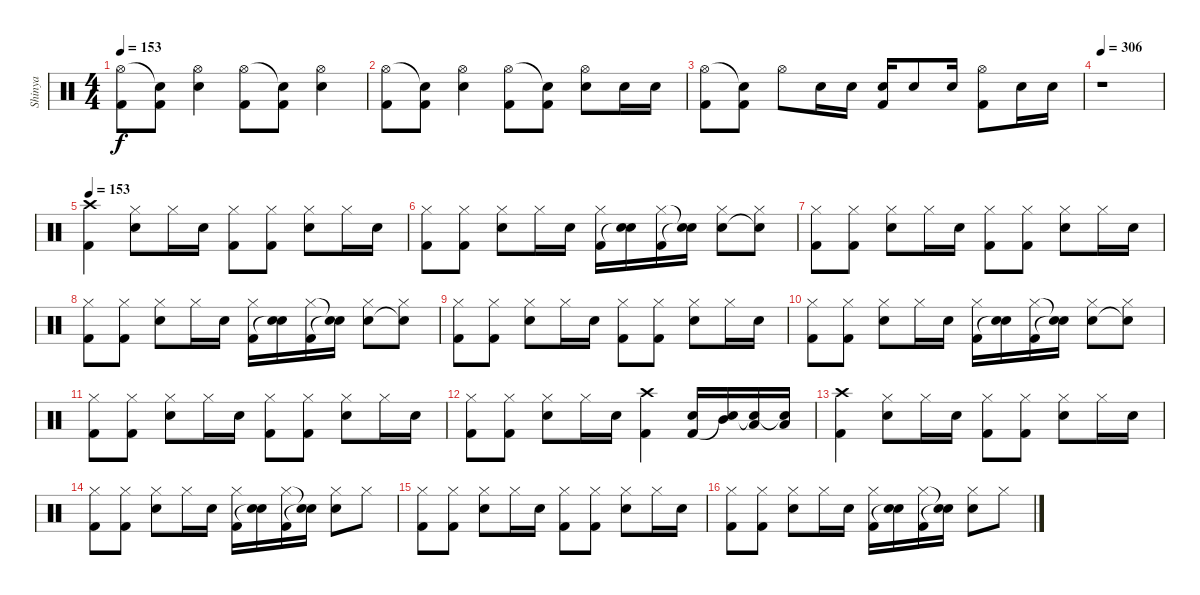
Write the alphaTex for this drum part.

\track ("Shinya" "Shinya") {instrument percussion}
\staff {score}
\articulation defaults
\ts (4 4)
\tempo 153
\clef neutral
\ks c
("Hi-Hat (open)" "Kick (hit) 2").8{dy f} ("Snare (hit)"{t} "Kick (hit) 2").8 ("Hi-Hat (open)" "Electric Snare (hit)").4 ("Hi-Hat (open)" "Kick (hit) 2").8 ("Snare (hit)"{t} "Kick (hit) 2").8 ("Hi-Hat (open)" "Electric Snare (hit)").4 |
("Hi-Hat (open)" "Kick (hit) 2").8 ("Snare (hit)"{t} "Kick (hit) 2").8 ("Hi-Hat (open)" "Electric Snare (hit)").4 ("Hi-Hat (open)" "Kick (hit) 2").8 ("Snare (hit)"{t} "Kick (hit) 2").8 ("Hi-Hat (open)" "Electric Snare (hit)").8 "Electric Snare (hit)".16 "Electric Snare (hit)".16 |
("Hi-Hat (open)" "Kick (hit) 2").8 ("Snare (hit)"{t} "Kick (hit) 2").8 "Hi-Hat (open)".8 "Electric Snare (hit)".16 "Electric Snare (hit)".16 ("Electric Snare (hit)" "Kick (hit) 2").16 "Electric Snare (hit)".8 "Electric Snare (hit)".16 ("Hi-Hat (open)" "Kick (hit) 2").8 "Electric Snare (hit)".16 "Electric Snare (hit)".16 |
\tempo 306
r.1 |
\tempo 153
("Crash high (hit)" "Kick (hit) 2").4 ("Hi-Hat (closed)" "Electric Snare (hit)").8 "Hi-Hat (closed)".16 "Electric Snare (hit)".16 ("Hi-Hat (closed)" "Kick (hit) 2").8 ("Hi-Hat (closed)" "Kick (hit) 2").8 ("Hi-Hat (closed)" "Electric Snare (hit)").8 "Hi-Hat (closed)".16 "Electric Snare (hit)".16 |
("Hi-Hat (closed)" "Kick (hit) 2").8 ("Hi-Hat (closed)" "Kick (hit) 2").8 ("Hi-Hat (closed)" "Electric Snare (hit)").8 "Hi-Hat (closed)".16 "Electric Snare (hit)".16 ("Hi-Hat (closed)" "Kick (hit) 2").16 ("Electric Snare (hit)" "Snare (hit)"{t}).16 ("Hi-Hat (closed)" "Kick (hit) 2").16 ("Snare (hit)"{t} "Snare (hit)"{t}).16 ("Hi-Hat (closed)" "Electric Snare (hit)").8 ("Hi-Hat (closed)" "Snare (hit)"{t}).8 |
("Hi-Hat (closed)" "Kick (hit) 2").8 ("Hi-Hat (closed)" "Kick (hit) 2").8 ("Hi-Hat (closed)" "Electric Snare (hit)").8 "Hi-Hat (closed)".16 "Electric Snare (hit)".16 ("Hi-Hat (closed)" "Kick (hit) 2").8 ("Hi-Hat (closed)" "Kick (hit) 2").8 ("Hi-Hat (closed)" "Electric Snare (hit)").8 "Hi-Hat (closed)".16 "Electric Snare (hit)".16 |
("Hi-Hat (closed)" "Kick (hit) 2").8 ("Hi-Hat (closed)" "Kick (hit) 2").8 ("Hi-Hat (closed)" "Electric Snare (hit)").8 "Hi-Hat (closed)".16 "Electric Snare (hit)".16 ("Hi-Hat (closed)" "Kick (hit) 2").16 ("Electric Snare (hit)" "Snare (hit)"{t}).16 ("Hi-Hat (closed)" "Kick (hit) 2").16 ("Snare (hit)"{t} "Snare (hit)"{t}).16 ("Hi-Hat (closed)" "Electric Snare (hit)").8 ("Hi-Hat (closed)" "Snare (hit)"{t}).8 |
("Hi-Hat (closed)" "Kick (hit) 2").8 ("Hi-Hat (closed)" "Kick (hit) 2").8 ("Hi-Hat (closed)" "Electric Snare (hit)").8 "Hi-Hat (closed)".16 "Electric Snare (hit)".16 ("Hi-Hat (closed)" "Kick (hit) 2").8 ("Hi-Hat (closed)" "Kick (hit) 2").8 ("Hi-Hat (closed)" "Electric Snare (hit)").8 "Hi-Hat (closed)".16 "Electric Snare (hit)".16 |
("Hi-Hat (closed)" "Kick (hit) 2").8 ("Hi-Hat (closed)" "Kick (hit) 2").8 ("Hi-Hat (closed)" "Electric Snare (hit)").8 "Hi-Hat (closed)".16 "Electric Snare (hit)".16 ("Hi-Hat (closed)" "Kick (hit) 2").16 ("Electric Snare (hit)" "Snare (hit)"{t}).16 ("Hi-Hat (closed)" "Kick (hit) 2").16 ("Snare (hit)"{t} "Snare (hit)"{t}).16 ("Hi-Hat (closed)" "Electric Snare (hit)").8 ("Hi-Hat (closed)" "Snare (hit)"{t}).8 |
("Hi-Hat (closed)" "Kick (hit) 2").8 ("Hi-Hat (closed)" "Kick (hit) 2").8 ("Hi-Hat (closed)" "Electric Snare (hit)").8 "Hi-Hat (closed)".16 "Electric Snare (hit)".16 ("Hi-Hat (closed)" "Kick (hit) 2").8 ("Hi-Hat (closed)" "Kick (hit) 2").8 ("Hi-Hat (closed)" "Electric Snare (hit)").8 "Hi-Hat (closed)".16 "Electric Snare (hit)".16 |
("Hi-Hat (closed)" "Kick (hit) 2").8 ("Hi-Hat (closed)" "Kick (hit) 2").8 ("Hi-Hat (closed)" "Electric Snare (hit)").8 "Hi-Hat (closed)".16 "Electric Snare (hit)".16 ("Crash high (hit)" "Kick (hit) 2").4 ("Electric Snare (hit)" "Kick (hit) 2").16 ("Mid Tom (hit)" "Snare (hit)"{t}).16 ("Low Tom (hit)" "Snare (hit)"{t}).16 ("Low Floor Tom (hit)" "Snare (hit)"{t}).16 |
("Crash high (hit)" "Kick (hit) 2").4 ("Hi-Hat (closed)" "Electric Snare (hit)").8 "Hi-Hat (closed)".16 "Electric Snare (hit)".16 ("Hi-Hat (closed)" "Kick (hit) 2").8 ("Hi-Hat (closed)" "Kick (hit) 2").8 ("Hi-Hat (closed)" "Electric Snare (hit)").8 "Hi-Hat (closed)".16 "Electric Snare (hit)".16 |
("Hi-Hat (closed)" "Kick (hit) 2").8 ("Hi-Hat (closed)" "Kick (hit) 2").8 ("Hi-Hat (closed)" "Electric Snare (hit)").8 "Hi-Hat (closed)".16 "Electric Snare (hit)".16 ("Hi-Hat (closed)" "Kick (hit) 2").16 ("Electric Snare (hit)" "Snare (hit)"{t}).16 ("Hi-Hat (closed)" "Kick (hit) 2").16 ("Snare (hit)"{t} "Snare (hit)"{t}).16 ("Hi-Hat (closed)" "Electric Snare (hit)").8 "Hi-Hat (closed)".8 |
("Hi-Hat (closed)" "Kick (hit) 2").8 ("Hi-Hat (closed)" "Kick (hit) 2").8 ("Hi-Hat (closed)" "Electric Snare (hit)").8 "Hi-Hat (closed)".16 "Electric Snare (hit)".16 ("Hi-Hat (closed)" "Kick (hit) 2").8 ("Hi-Hat (closed)" "Kick (hit) 2").8 ("Hi-Hat (closed)" "Electric Snare (hit)").8 "Hi-Hat (closed)".16 "Electric Snare (hit)".16 |
("Hi-Hat (closed)" "Kick (hit) 2").8 ("Hi-Hat (closed)" "Kick (hit) 2").8 ("Hi-Hat (closed)" "Electric Snare (hit)").8 "Hi-Hat (closed)".16 "Electric Snare (hit)".16 ("Hi-Hat (closed)" "Kick (hit) 2").16 ("Electric Snare (hit)" "Snare (hit)"{t}).16 ("Hi-Hat (closed)" "Kick (hit) 2").16 ("Snare (hit)"{t} "Snare (hit)"{t}).16 ("Hi-Hat (closed)" "Electric Snare (hit)").8 "Hi-Hat (closed)".8
